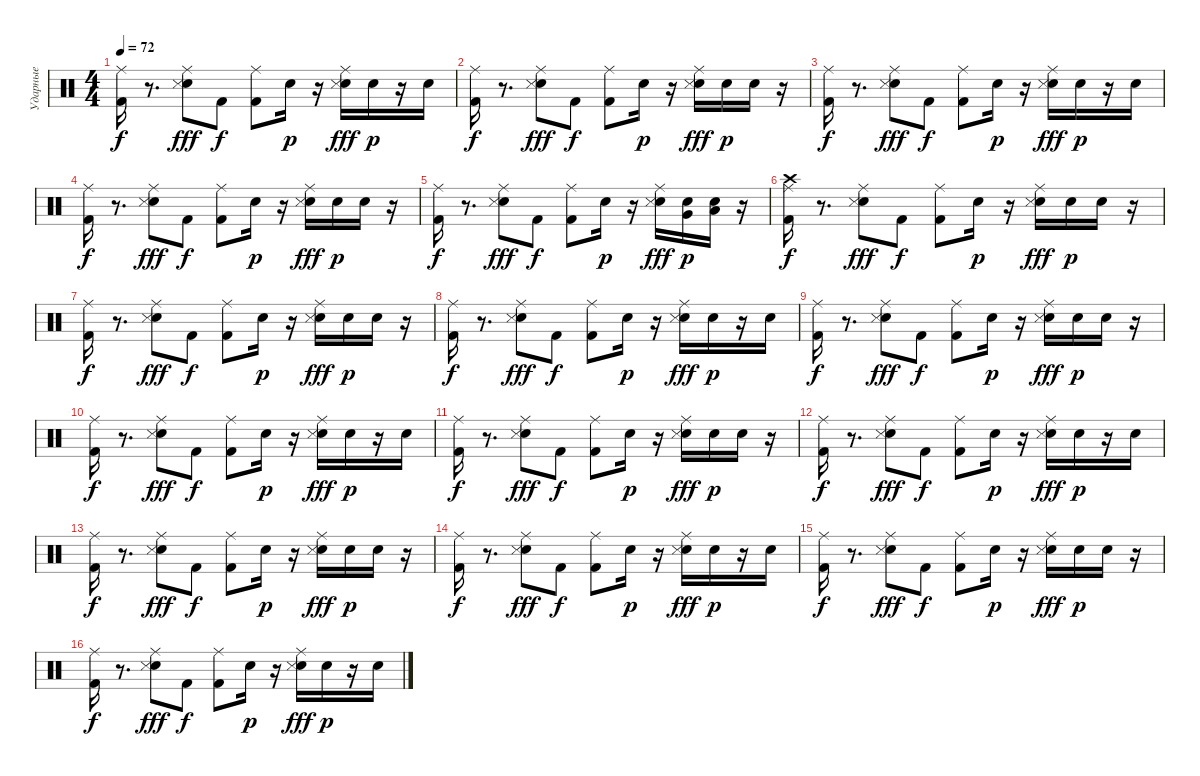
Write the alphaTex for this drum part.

\track ("Ударные" "Ударные") {instrument percussion}
\staff {score}
\articulation defaults
\ts (4 4)
\tempo 72
\clef neutral
\ks c
("Kick (hit) 2" "Ride (middle)").16{dy f} r.8{d} ("Electric Snare (hit)" "Snare (side stick) 3" "Ride (middle)").8{dy fff} "Kick (hit) 2".8{dy f} ("Kick (hit) 2" "Ride (middle)").8 "Snare (hit) 2".16{dy p} r.16 ("Electric Snare (hit)" "Snare (side stick) 3" "Ride (middle)").16{dy fff} "Snare (hit) 2".16{dy p} r.16 "Snare (hit) 2".16 |
("Kick (hit) 2" "Ride (middle)").16{dy f} r.8{d} ("Electric Snare (hit)" "Snare (side stick) 3" "Ride (middle)").8{dy fff} "Kick (hit) 2".8{dy f} ("Kick (hit) 2" "Ride (middle)").8 "Snare (hit) 2".16{dy p} r.16 ("Electric Snare (hit)" "Snare (side stick) 3" "Ride (middle)").16{dy fff} "Snare (hit) 2".16{dy p} "Snare (hit) 2".16 r.16 |
("Kick (hit) 2" "Ride (middle)").16{dy f} r.8{d} ("Electric Snare (hit)" "Snare (side stick) 3" "Ride (middle)").8{dy fff} "Kick (hit) 2".8{dy f} ("Kick (hit) 2" "Ride (middle)").8 "Snare (hit) 2".16{dy p} r.16 ("Electric Snare (hit)" "Snare (side stick) 3" "Ride (middle)").16{dy fff} "Snare (hit) 2".16{dy p} r.16 "Snare (hit) 2".16 |
("Kick (hit) 2" "Ride (middle)").16{dy f} r.8{d} ("Electric Snare (hit)" "Snare (side stick) 3" "Ride (middle)").8{dy fff} "Kick (hit) 2".8{dy f} ("Kick (hit) 2" "Ride (middle)").8 "Snare (hit) 2".16{dy p} r.16 ("Electric Snare (hit)" "Snare (side stick) 3" "Ride (middle)").16{dy fff} "Snare (hit) 2".16{dy p} "Snare (hit) 2".16 r.16 |
("Kick (hit) 2" "Ride (middle)").16{dy f} r.8{d} ("Electric Snare (hit)" "Snare (side stick) 3" "Ride (middle)").8{dy fff} "Kick (hit) 2".8{dy f} ("Kick (hit) 2" "Ride (middle)").8 "Snare (hit) 2".16{dy p} r.16 ("Electric Snare (hit)" "Snare (side stick) 3" "Ride (middle)").16{dy fff} ("Snare (hit) 2" "Very Low Tom (hit)").16{dy p} ("Snare (hit) 2" "Low Floor Tom (hit)").16 r.16 |
("Kick (hit) 2" "Crash high (hit)" "Ride (middle)").16{dy f} r.8{d} ("Electric Snare (hit)" "Snare (side stick) 3" "Ride (middle)").8{dy fff} "Kick (hit) 2".8{dy f} ("Kick (hit) 2" "Ride (middle)").8 "Snare (hit) 2".16{dy p} r.16 ("Electric Snare (hit)" "Snare (side stick) 3" "Ride (middle)").16{dy fff} "Snare (hit) 2".16{dy p} "Snare (hit) 2".16 r.16 |
("Kick (hit) 2" "Ride (middle)").16{dy f} r.8{d} ("Electric Snare (hit)" "Snare (side stick) 3" "Ride (middle)").8{dy fff} "Kick (hit) 2".8{dy f} ("Kick (hit) 2" "Ride (middle)").8 "Snare (hit) 2".16{dy p} r.16 ("Electric Snare (hit)" "Snare (side stick) 3" "Ride (middle)").16{dy fff} "Snare (hit) 2".16{dy p} "Snare (hit) 2".16 r.16 |
("Kick (hit) 2" "Ride (middle)").16{dy f} r.8{d} ("Electric Snare (hit)" "Snare (side stick) 3" "Ride (middle)").8{dy fff} "Kick (hit) 2".8{dy f} ("Kick (hit) 2" "Ride (middle)").8 "Snare (hit) 2".16{dy p} r.16 ("Electric Snare (hit)" "Snare (side stick) 3" "Ride (middle)").16{dy fff} "Snare (hit) 2".16{dy p} r.16 "Snare (hit) 2".16 |
("Kick (hit) 2" "Ride (middle)").16{dy f} r.8{d} ("Electric Snare (hit)" "Snare (side stick) 3" "Ride (middle)").8{dy fff} "Kick (hit) 2".8{dy f} ("Kick (hit) 2" "Ride (middle)").8 "Snare (hit) 2".16{dy p} r.16 ("Electric Snare (hit)" "Snare (side stick) 3" "Ride (middle)").16{dy fff} "Snare (hit) 2".16{dy p} "Snare (hit) 2".16 r.16 |
("Kick (hit) 2" "Ride (middle)").16{dy f} r.8{d} ("Electric Snare (hit)" "Snare (side stick) 3" "Ride (middle)").8{dy fff} "Kick (hit) 2".8{dy f} ("Kick (hit) 2" "Ride (middle)").8 "Snare (hit) 2".16{dy p} r.16 ("Electric Snare (hit)" "Snare (side stick) 3" "Ride (middle)").16{dy fff} "Snare (hit) 2".16{dy p} r.16 "Snare (hit) 2".16 |
("Kick (hit) 2" "Ride (middle)").16{dy f} r.8{d} ("Electric Snare (hit)" "Snare (side stick) 3" "Ride (middle)").8{dy fff} "Kick (hit) 2".8{dy f} ("Kick (hit) 2" "Ride (middle)").8 "Snare (hit) 2".16{dy p} r.16 ("Electric Snare (hit)" "Snare (side stick) 3" "Ride (middle)").16{dy fff} "Snare (hit) 2".16{dy p} "Snare (hit) 2".16 r.16 |
("Kick (hit) 2" "Ride (middle)").16{dy f} r.8{d} ("Electric Snare (hit)" "Snare (side stick) 3" "Ride (middle)").8{dy fff} "Kick (hit) 2".8{dy f} ("Kick (hit) 2" "Ride (middle)").8 "Snare (hit) 2".16{dy p} r.16 ("Electric Snare (hit)" "Snare (side stick) 3" "Ride (middle)").16{dy fff} "Snare (hit) 2".16{dy p} r.16 "Snare (hit) 2".16 |
("Kick (hit) 2" "Ride (middle)").16{dy f} r.8{d} ("Electric Snare (hit)" "Snare (side stick) 3" "Ride (middle)").8{dy fff} "Kick (hit) 2".8{dy f} ("Kick (hit) 2" "Ride (middle)").8 "Snare (hit) 2".16{dy p} r.16 ("Electric Snare (hit)" "Snare (side stick) 3" "Ride (middle)").16{dy fff} "Snare (hit) 2".16{dy p} "Snare (hit) 2".16 r.16 |
("Kick (hit) 2" "Ride (middle)").16{dy f} r.8{d} ("Electric Snare (hit)" "Snare (side stick) 3" "Ride (middle)").8{dy fff} "Kick (hit) 2".8{dy f} ("Kick (hit) 2" "Ride (middle)").8 "Snare (hit) 2".16{dy p} r.16 ("Electric Snare (hit)" "Snare (side stick) 3" "Ride (middle)").16{dy fff} "Snare (hit) 2".16{dy p} r.16 "Snare (hit) 2".16 |
("Kick (hit) 2" "Ride (middle)").16{dy f} r.8{d} ("Electric Snare (hit)" "Snare (side stick) 3" "Ride (middle)").8{dy fff} "Kick (hit) 2".8{dy f} ("Kick (hit) 2" "Ride (middle)").8 "Snare (hit) 2".16{dy p} r.16 ("Electric Snare (hit)" "Snare (side stick) 3" "Ride (middle)").16{dy fff} "Snare (hit) 2".16{dy p} "Snare (hit) 2".16 r.16 |
("Kick (hit) 2" "Ride (middle)").16{dy f} r.8{d} ("Electric Snare (hit)" "Snare (side stick) 3" "Ride (middle)").8{dy fff} "Kick (hit) 2".8{dy f} ("Kick (hit) 2" "Ride (middle)").8 "Snare (hit) 2".16{dy p} r.16 ("Electric Snare (hit)" "Snare (side stick) 3" "Ride (middle)").16{dy fff} "Snare (hit) 2".16{dy p} r.16 "Snare (hit) 2".16
